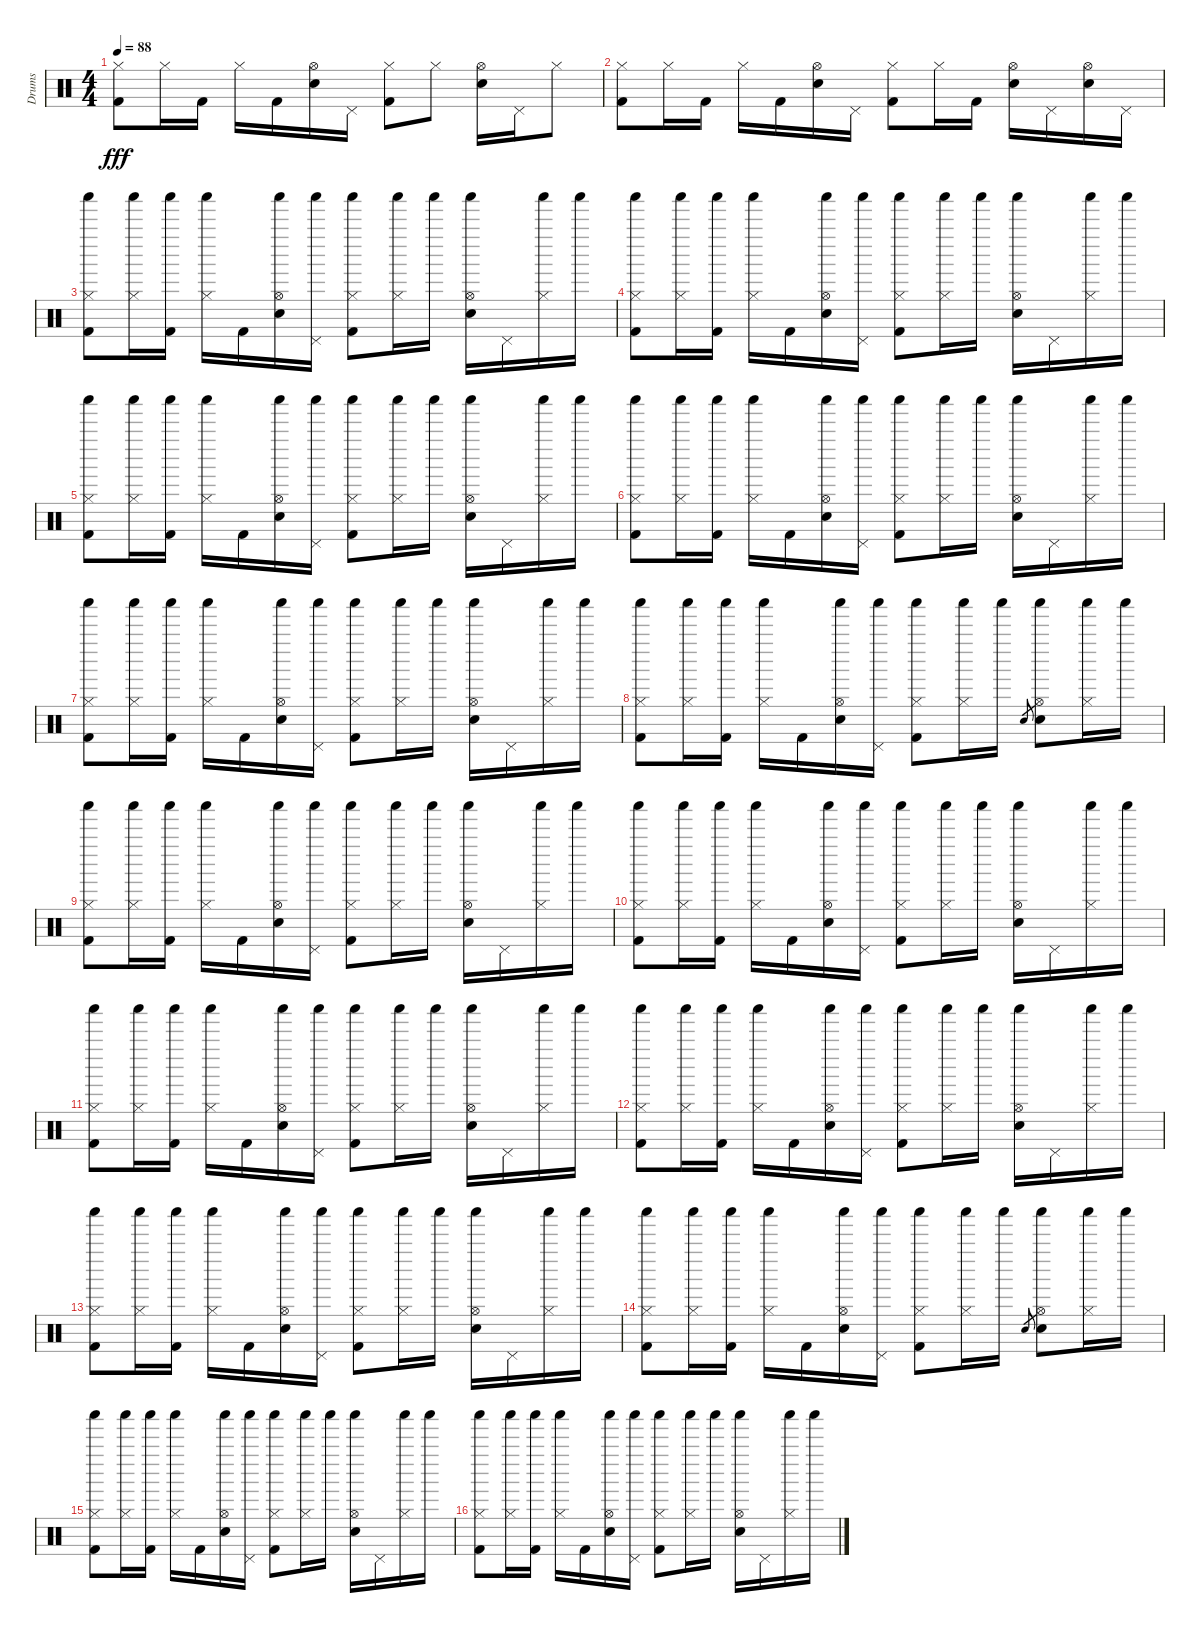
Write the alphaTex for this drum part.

\track ("Drums" "Drums") {instrument percussion}
\staff {score}
\articulation defaults
\ts (4 4)
\tempo 88
\clef neutral
\ks c
("Hi-Hat (closed)" "Kick (hit) 2").8{dy fff} "Hi-Hat (closed)".16 "Kick (hit) 2".16 "Hi-Hat (closed)".16 "Kick (hit) 2".16 ("Hi-Hat (open)" "Snare (hit) 2").16 "Pedal Hi-Hat (hit)".16 ("Hi-Hat (closed)" "Kick (hit) 2").8 "Hi-Hat (closed)".8 ("Hi-Hat (open)" "Snare (hit) 2").16 "Pedal Hi-Hat (hit)".16 "Hi-Hat (closed)".8 |
("Hi-Hat (closed)" "Kick (hit) 2").8 "Hi-Hat (closed)".16 "Kick (hit) 2".16 "Hi-Hat (closed)".16 "Kick (hit) 2".16 ("Hi-Hat (open)" "Snare (hit) 2").16 "Pedal Hi-Hat (hit)".16 ("Hi-Hat (closed)" "Kick (hit) 2").8 "Hi-Hat (closed)".16 "Kick (hit) 2".16 ("Hi-Hat (open)" "Snare (hit) 2").16 "Pedal Hi-Hat (hit)".16 ("Hi-Hat (open)" "Snare (hit) 2").16 "Pedal Hi-Hat (hit)".16 |
("Hi-Hat (closed)" "Shaker (hit)" "Kick (hit) 2").8 ("Hi-Hat (closed)" "Shaker (hit)").16 ("Shaker (hit)" "Kick (hit) 2").16 ("Hi-Hat (closed)" "Shaker (hit)").16 "Kick (hit) 2".16 ("Hi-Hat (open)" "Shaker (hit)" "Snare (hit) 2").16 ("Pedal Hi-Hat (hit)" "Shaker (hit)").16 ("Hi-Hat (closed)" "Shaker (hit)" "Kick (hit) 2").8 ("Hi-Hat (closed)" "Shaker (hit)").16 "Shaker (hit)".16 ("Hi-Hat (open)" "Shaker (hit)" "Snare (hit) 2").16 "Pedal Hi-Hat (hit)".16 ("Hi-Hat (closed)" "Shaker (hit)").16 "Shaker (hit)".16 |
("Hi-Hat (closed)" "Shaker (hit)" "Kick (hit) 2").8 ("Hi-Hat (closed)" "Shaker (hit)").16 ("Shaker (hit)" "Kick (hit) 2").16 ("Hi-Hat (closed)" "Shaker (hit)").16 "Kick (hit) 2".16 ("Hi-Hat (open)" "Shaker (hit)" "Snare (hit) 2").16 ("Pedal Hi-Hat (hit)" "Shaker (hit)").16 ("Hi-Hat (closed)" "Shaker (hit)" "Kick (hit) 2").8 ("Hi-Hat (closed)" "Shaker (hit)").16 "Shaker (hit)".16 ("Hi-Hat (open)" "Shaker (hit)" "Snare (hit) 2").16 "Pedal Hi-Hat (hit)".16 ("Hi-Hat (closed)" "Shaker (hit)").16 "Shaker (hit)".16 |
("Hi-Hat (closed)" "Shaker (hit)" "Kick (hit) 2").8 ("Hi-Hat (closed)" "Shaker (hit)").16 ("Shaker (hit)" "Kick (hit) 2").16 ("Hi-Hat (closed)" "Shaker (hit)").16 "Kick (hit) 2".16 ("Hi-Hat (open)" "Shaker (hit)" "Snare (hit) 2").16 ("Pedal Hi-Hat (hit)" "Shaker (hit)").16 ("Hi-Hat (closed)" "Shaker (hit)" "Kick (hit) 2").8 ("Hi-Hat (closed)" "Shaker (hit)").16 "Shaker (hit)".16 ("Hi-Hat (open)" "Shaker (hit)" "Snare (hit) 2").16 "Pedal Hi-Hat (hit)".16 ("Hi-Hat (closed)" "Shaker (hit)").16 "Shaker (hit)".16 |
("Hi-Hat (closed)" "Shaker (hit)" "Kick (hit) 2").8 ("Hi-Hat (closed)" "Shaker (hit)").16 ("Shaker (hit)" "Kick (hit) 2").16 ("Hi-Hat (closed)" "Shaker (hit)").16 "Kick (hit) 2".16 ("Hi-Hat (open)" "Shaker (hit)" "Snare (hit) 2").16 ("Pedal Hi-Hat (hit)" "Shaker (hit)").16 ("Hi-Hat (closed)" "Shaker (hit)" "Kick (hit) 2").8 ("Hi-Hat (closed)" "Shaker (hit)").16 "Shaker (hit)".16 ("Hi-Hat (open)" "Shaker (hit)" "Snare (hit) 2").16 "Pedal Hi-Hat (hit)".16 ("Hi-Hat (closed)" "Shaker (hit)").16 "Shaker (hit)".16 |
("Hi-Hat (closed)" "Shaker (hit)" "Kick (hit) 2").8 ("Hi-Hat (closed)" "Shaker (hit)").16 ("Shaker (hit)" "Kick (hit) 2").16 ("Hi-Hat (closed)" "Shaker (hit)").16 "Kick (hit) 2".16 ("Hi-Hat (open)" "Shaker (hit)" "Snare (hit) 2").16 ("Pedal Hi-Hat (hit)" "Shaker (hit)").16 ("Hi-Hat (closed)" "Shaker (hit)" "Kick (hit) 2").8 ("Hi-Hat (closed)" "Shaker (hit)").16 "Shaker (hit)".16 ("Hi-Hat (open)" "Shaker (hit)" "Snare (hit) 2").16 "Pedal Hi-Hat (hit)".16 ("Hi-Hat (closed)" "Shaker (hit)").16 "Shaker (hit)".16 |
("Hi-Hat (closed)" "Shaker (hit)" "Kick (hit) 2").8 ("Hi-Hat (closed)" "Shaker (hit)").16 ("Shaker (hit)" "Kick (hit) 2").16 ("Hi-Hat (closed)" "Shaker (hit)").16 "Kick (hit) 2".16 ("Hi-Hat (open)" "Shaker (hit)" "Snare (hit) 2").16 ("Pedal Hi-Hat (hit)" "Shaker (hit)").16 ("Hi-Hat (closed)" "Shaker (hit)" "Kick (hit) 2").8 ("Hi-Hat (closed)" "Shaker (hit)").16 "Shaker (hit)".16 "Snare (hit) 2".8{gr} ("Hi-Hat (open)" "Shaker (hit)" "Snare (hit) 2").8 ("Hi-Hat (closed)" "Shaker (hit)").16 "Shaker (hit)".16 |
("Hi-Hat (closed)" "Shaker (hit)" "Kick (hit) 2").8 ("Hi-Hat (closed)" "Shaker (hit)").16 ("Shaker (hit)" "Kick (hit) 2").16 ("Hi-Hat (closed)" "Shaker (hit)").16 "Kick (hit) 2".16 ("Hi-Hat (open)" "Shaker (hit)" "Snare (hit) 2").16 ("Pedal Hi-Hat (hit)" "Shaker (hit)").16 ("Hi-Hat (closed)" "Shaker (hit)" "Kick (hit) 2").8 ("Hi-Hat (closed)" "Shaker (hit)").16 "Shaker (hit)".16 ("Hi-Hat (open)" "Shaker (hit)" "Snare (hit) 2").16 "Pedal Hi-Hat (hit)".16 ("Hi-Hat (closed)" "Shaker (hit)").16 "Shaker (hit)".16 |
("Hi-Hat (closed)" "Shaker (hit)" "Kick (hit) 2").8 ("Hi-Hat (closed)" "Shaker (hit)").16 ("Shaker (hit)" "Kick (hit) 2").16 ("Hi-Hat (closed)" "Shaker (hit)").16 "Kick (hit) 2".16 ("Hi-Hat (open)" "Shaker (hit)" "Snare (hit) 2").16 ("Pedal Hi-Hat (hit)" "Shaker (hit)").16 ("Hi-Hat (closed)" "Shaker (hit)" "Kick (hit) 2").8 ("Hi-Hat (closed)" "Shaker (hit)").16 "Shaker (hit)".16 ("Hi-Hat (open)" "Shaker (hit)" "Snare (hit) 2").16 "Pedal Hi-Hat (hit)".16 ("Hi-Hat (closed)" "Shaker (hit)").16 "Shaker (hit)".16 |
("Hi-Hat (closed)" "Shaker (hit)" "Kick (hit) 2").8 ("Hi-Hat (closed)" "Shaker (hit)").16 ("Shaker (hit)" "Kick (hit) 2").16 ("Hi-Hat (closed)" "Shaker (hit)").16 "Kick (hit) 2".16 ("Hi-Hat (open)" "Shaker (hit)" "Snare (hit) 2").16 ("Pedal Hi-Hat (hit)" "Shaker (hit)").16 ("Hi-Hat (closed)" "Shaker (hit)" "Kick (hit) 2").8 ("Hi-Hat (closed)" "Shaker (hit)").16 "Shaker (hit)".16 ("Hi-Hat (open)" "Shaker (hit)" "Snare (hit) 2").16 "Pedal Hi-Hat (hit)".16 ("Hi-Hat (closed)" "Shaker (hit)").16 "Shaker (hit)".16 |
("Hi-Hat (closed)" "Shaker (hit)" "Kick (hit) 2").8 ("Hi-Hat (closed)" "Shaker (hit)").16 ("Shaker (hit)" "Kick (hit) 2").16 ("Hi-Hat (closed)" "Shaker (hit)").16 "Kick (hit) 2".16 ("Hi-Hat (open)" "Shaker (hit)" "Snare (hit) 2").16 ("Pedal Hi-Hat (hit)" "Shaker (hit)").16 ("Hi-Hat (closed)" "Shaker (hit)" "Kick (hit) 2").8 ("Hi-Hat (closed)" "Shaker (hit)").16 "Shaker (hit)".16 ("Hi-Hat (open)" "Shaker (hit)" "Snare (hit) 2").16 "Pedal Hi-Hat (hit)".16 ("Hi-Hat (closed)" "Shaker (hit)").16 "Shaker (hit)".16 |
("Hi-Hat (closed)" "Shaker (hit)" "Kick (hit) 2").8 ("Hi-Hat (closed)" "Shaker (hit)").16 ("Shaker (hit)" "Kick (hit) 2").16 ("Hi-Hat (closed)" "Shaker (hit)").16 "Kick (hit) 2".16 ("Hi-Hat (open)" "Shaker (hit)" "Snare (hit) 2").16 ("Pedal Hi-Hat (hit)" "Shaker (hit)").16 ("Hi-Hat (closed)" "Shaker (hit)" "Kick (hit) 2").8 ("Hi-Hat (closed)" "Shaker (hit)").16 "Shaker (hit)".16 ("Hi-Hat (open)" "Shaker (hit)" "Snare (hit) 2").16 "Pedal Hi-Hat (hit)".16 ("Hi-Hat (closed)" "Shaker (hit)").16 "Shaker (hit)".16 |
("Hi-Hat (closed)" "Shaker (hit)" "Kick (hit) 2").8 ("Hi-Hat (closed)" "Shaker (hit)").16 ("Shaker (hit)" "Kick (hit) 2").16 ("Hi-Hat (closed)" "Shaker (hit)").16 "Kick (hit) 2".16 ("Hi-Hat (open)" "Shaker (hit)" "Snare (hit) 2").16 ("Pedal Hi-Hat (hit)" "Shaker (hit)").16 ("Hi-Hat (closed)" "Shaker (hit)" "Kick (hit) 2").8 ("Hi-Hat (closed)" "Shaker (hit)").16 "Shaker (hit)".16 "Snare (hit) 2".8{gr} ("Hi-Hat (open)" "Shaker (hit)" "Snare (hit) 2").8 ("Hi-Hat (closed)" "Shaker (hit)").16 "Shaker (hit)".16 |
("Hi-Hat (closed)" "Shaker (hit)" "Kick (hit) 2").8 ("Hi-Hat (closed)" "Shaker (hit)").16 ("Shaker (hit)" "Kick (hit) 2").16 ("Hi-Hat (closed)" "Shaker (hit)").16 "Kick (hit) 2".16 ("Hi-Hat (open)" "Shaker (hit)" "Snare (hit) 2").16 ("Pedal Hi-Hat (hit)" "Shaker (hit)").16 ("Hi-Hat (closed)" "Shaker (hit)" "Kick (hit) 2").8 ("Hi-Hat (closed)" "Shaker (hit)").16 "Shaker (hit)".16 ("Hi-Hat (open)" "Shaker (hit)" "Snare (hit) 2").16 "Pedal Hi-Hat (hit)".16 ("Hi-Hat (closed)" "Shaker (hit)").16 "Shaker (hit)".16 |
("Hi-Hat (closed)" "Shaker (hit)" "Kick (hit) 2").8 ("Hi-Hat (closed)" "Shaker (hit)").16 ("Shaker (hit)" "Kick (hit) 2").16 ("Hi-Hat (closed)" "Shaker (hit)").16 "Kick (hit) 2".16 ("Hi-Hat (open)" "Shaker (hit)" "Snare (hit) 2").16 ("Pedal Hi-Hat (hit)" "Shaker (hit)").16 ("Hi-Hat (closed)" "Shaker (hit)" "Kick (hit) 2").8 ("Hi-Hat (closed)" "Shaker (hit)").16 "Shaker (hit)".16 ("Hi-Hat (open)" "Shaker (hit)" "Snare (hit) 2").16 "Pedal Hi-Hat (hit)".16 ("Hi-Hat (closed)" "Shaker (hit)").16 "Shaker (hit)".16
